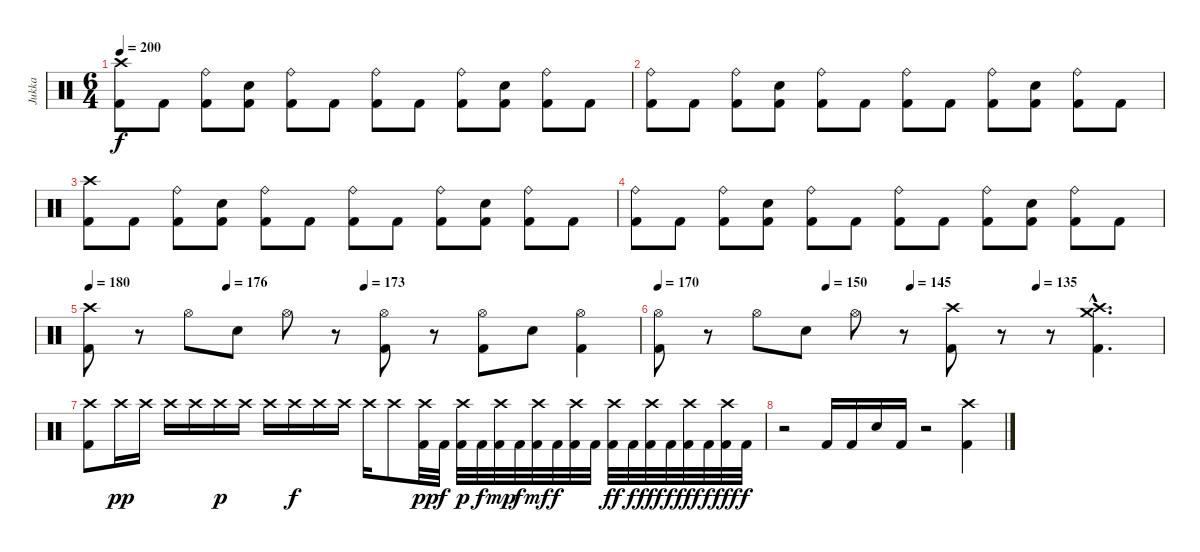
\track ("Jukka" "Jukka") {instrument percussion}
\staff {score}
\articulation defaults
\ts (6 4)
\tempo 200
\clef neutral
\ks c
("Crash high (hit)" "Kick (hit) 2").8{dy f} "Kick (hit) 2".8 ("Ride (bell)" "Kick (hit) 2").8 ("Snare (hit) 2" "Kick (hit) 2").8 ("Ride (bell)" "Kick (hit) 2").8 "Kick (hit) 2".8 ("Ride (bell)" "Kick (hit) 2").8 "Kick (hit) 2".8 ("Ride (bell)" "Kick (hit) 2").8 ("Snare (hit) 2" "Kick (hit) 2").8 ("Ride (bell)" "Kick (hit) 2").8 "Kick (hit) 2".8 |
("Ride (bell)" "Kick (hit) 2").8 "Kick (hit) 2".8 ("Ride (bell)" "Kick (hit) 2").8 ("Snare (hit) 2" "Kick (hit) 2").8 ("Ride (bell)" "Kick (hit) 2").8 "Kick (hit) 2".8 ("Ride (bell)" "Kick (hit) 2").8 "Kick (hit) 2".8 ("Ride (bell)" "Kick (hit) 2").8 ("Snare (hit) 2" "Kick (hit) 2").8 ("Ride (bell)" "Kick (hit) 2").8 "Kick (hit) 2".8 |
("Crash high (hit)" "Kick (hit) 2").8 "Kick (hit) 2".8 ("Ride (bell)" "Kick (hit) 2").8 ("Snare (hit) 2" "Kick (hit) 2").8 ("Ride (bell)" "Kick (hit) 2").8 "Kick (hit) 2".8 ("Ride (bell)" "Kick (hit) 2").8 "Kick (hit) 2".8 ("Ride (bell)" "Kick (hit) 2").8 ("Snare (hit) 2" "Kick (hit) 2").8 ("Ride (bell)" "Kick (hit) 2").8 "Kick (hit) 2".8 |
("Ride (bell)" "Kick (hit) 2").8 "Kick (hit) 2".8 ("Ride (bell)" "Kick (hit) 2").8 ("Snare (hit) 2" "Kick (hit) 2").8 ("Ride (bell)" "Kick (hit) 2").8 "Kick (hit) 2".8 ("Ride (bell)" "Kick (hit) 2").8 "Kick (hit) 2".8 ("Ride (bell)" "Kick (hit) 2").8 ("Snare (hit) 2" "Kick (hit) 2").8 ("Ride (bell)" "Kick (hit) 2").8 "Kick (hit) 2".8 |
\tempo 180
\tempo (176 0.25)
\tempo (173 0.5)
("Crash high (hit)" "Kick (hit) 2").8 r.8 "Hi-Hat (open)".8 "Snare (hit) 2".8 "Hi-Hat (open)".8 r.8 ("Hi-Hat (open)" "Kick (hit) 2").8 r.8 ("Hi-Hat (open)" "Kick (hit) 2").8 "Snare (hit) 2".8 ("Hi-Hat (open)" "Kick (hit) 2").4 |
\tempo 170
\tempo (150 0.3333333333333333)
\tempo (145 0.5)
\tempo (135 0.75)
("Hi-Hat (open)" "Kick (hit) 2").8 r.8 "Hi-Hat (open)".8 "Snare (hit) 2".8 "Hi-Hat (open)".8 r.8 ("Crash high (hit)" "Kick (hit) 2").8 r.8 r.8 ("Crash high (hit)"{hac} "Crash medium (hit)"{hac} "Kick (hit) 2"{hac}).4{d} |
("Crash high (hit)" "Kick (hit) 2").8 "Crash high (hit)".16{dy pp} "Crash high (hit)".16 "Crash high (hit)".16 "Crash high (hit)".16 "Crash high (hit)".16{dy p} "Crash high (hit)".16 "Crash high (hit)".16 "Crash high (hit)".16{dy f} "Crash high (hit)".16 "Crash high (hit)".16 "Crash high (hit)".16 "Crash high (hit)".8 ("Crash high (hit)" "Kick (hit) 2").32{dy pp} "Kick (hit) 2".32{dy f} ("Crash high (hit)" "Kick (hit) 2").32{dy p} "Kick (hit) 2".32{dy f} ("Crash high (hit)" "Kick (hit) 2").32{dy mp} "Kick (hit) 2".32{dy f} ("Crash high (hit)" "Kick (hit) 2").32{dy mf} "Kick (hit) 2".32{dy f} ("Crash high (hit)" "Kick (hit) 2").32 "Kick (hit) 2".32 ("Crash high (hit)" "Kick (hit) 2").32{dy ff} "Kick (hit) 2".32{dy f} ("Crash high (hit)" "Kick (hit) 2").32{dy fff} "Kick (hit) 2".32{dy f} ("Crash high (hit)" "Kick (hit) 2").32{dy fff} "Kick (hit) 2".32{dy f} ("Crash high (hit)" "Kick (hit) 2").32{dy fff} "Kick (hit) 2".32{dy f} |
r.2 "Kick (hit) 2".16 "Kick (hit) 2".16 "Snare (hit) 2".16 "Kick (hit) 2".16 r.2 ("Crash high (hit)" "Kick (hit) 2").4
